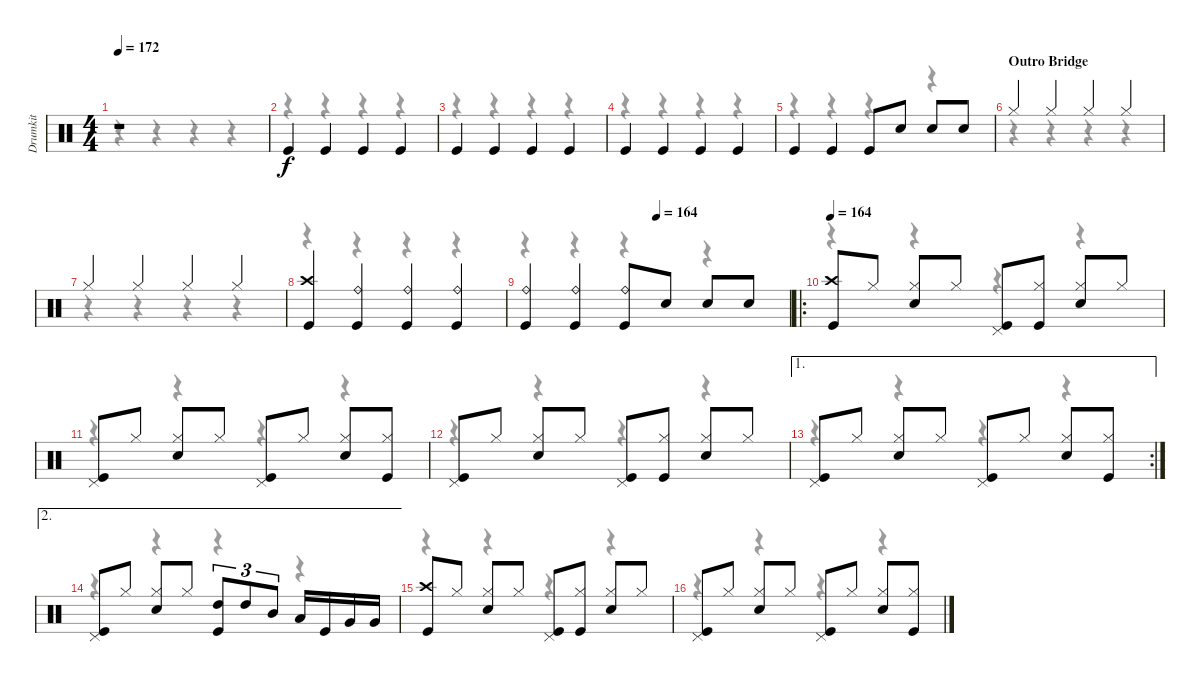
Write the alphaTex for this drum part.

\track ("Drumkit" "Drumkit") {instrument percussion}
\staff {score}
\articulation defaults
\voice
\ts (4 4)
\tempo 172
\clef neutral
\ks c
r.1{dy f} |
"Kick (hit)".4 "Kick (hit)".4 "Kick (hit)".4 "Kick (hit)".4 |
"Kick (hit)".4 "Kick (hit)".4 "Kick (hit)".4 "Kick (hit)".4 |
"Kick (hit)".4 "Kick (hit)".4 "Kick (hit)".4 "Kick (hit)".4 |
"Kick (hit)".4 "Kick (hit)".4 "Kick (hit)".8 "Snare (hit) 2".8 "Snare (hit) 2".8 "Snare (hit) 2".8 |
\section ("" "Outro Bridge")
"Hi-Hat (closed)".4 "Hi-Hat (closed)".4 "Hi-Hat (closed)".4 "Hi-Hat (closed)".4 |
"Hi-Hat (closed)".4 "Hi-Hat (closed)".4 "Hi-Hat (closed)".4 "Hi-Hat (closed)".4 |
("Crash high (hit)" "Kick (hit)").4 ("Ride (bell)" "Kick (hit)").4 ("Ride (bell)" "Kick (hit)").4 ("Ride (bell)" "Kick (hit)").4 |
\tempo (164 0.5)
("Ride (bell)" "Kick (hit)").4 ("Ride (bell)" "Kick (hit)").4 ("Ride (bell)" "Kick (hit)").8 "Snare (hit) 2".8 "Snare (hit) 2".8 "Snare (hit) 2".8 |
\ro
\tempo 164
("Crash high (hit)" "Kick (hit)").8 "Hi-Hat (closed)".8 ("Hi-Hat (closed)" "Snare (hit) 2").8 "Hi-Hat (closed)".8 ("Pedal Hi-Hat (hit)" "Kick (hit)").8 ("Hi-Hat (closed)" "Kick (hit)").8 ("Hi-Hat (closed)" "Snare (hit) 2").8 "Hi-Hat (closed)".8 |
("Pedal Hi-Hat (hit)" "Kick (hit)").8 "Hi-Hat (closed)".8 ("Hi-Hat (closed)" "Snare (hit) 2").8 "Hi-Hat (closed)".8 ("Pedal Hi-Hat (hit)" "Kick (hit)").8 "Hi-Hat (closed)".8 ("Hi-Hat (closed)" "Snare (hit) 2").8 ("Hi-Hat (closed)" "Kick (hit)").8 |
("Pedal Hi-Hat (hit)" "Kick (hit)").8 "Hi-Hat (closed)".8 ("Hi-Hat (closed)" "Snare (hit) 2").8 "Hi-Hat (closed)".8 ("Pedal Hi-Hat (hit)" "Kick (hit)").8 ("Hi-Hat (closed)" "Kick (hit)").8 ("Hi-Hat (closed)" "Snare (hit) 2").8 "Hi-Hat (closed)".8 |
\ae 1
\rc 2
("Pedal Hi-Hat (hit)" "Kick (hit)").8 "Hi-Hat (closed)".8 ("Hi-Hat (closed)" "Snare (hit) 2").8 "Hi-Hat (closed)".8 ("Pedal Hi-Hat (hit)" "Kick (hit)").8 "Hi-Hat (closed)".8 ("Hi-Hat (closed)" "Snare (hit) 2").8 ("Hi-Hat (closed)" "Kick (hit)").8 |
\ae 2
("Pedal Hi-Hat (hit)" "Kick (hit)").8 "Hi-Hat (closed)".8 ("Hi-Hat (closed)" "Snare (hit) 2").8 "Hi-Hat (closed)".8 ("High Tom (hit)" "Kick (hit)").8{tu (3 2)} "High Tom (hit)".8{tu (3 2)} "Mid Tom (hit)".8{tu (3 2)} "Low Tom (hit)".16 "Kick (hit)".16 "Very Low Tom (hit)".16 "Very Low Tom (hit)".16 |
("Crash high (hit)" "Kick (hit)").8 "Hi-Hat (closed)".8 ("Hi-Hat (closed)" "Snare (hit) 2").8 "Hi-Hat (closed)".8 ("Pedal Hi-Hat (hit)" "Kick (hit)").8 ("Hi-Hat (closed)" "Kick (hit)").8 ("Hi-Hat (closed)" "Snare (hit) 2").8 "Hi-Hat (closed)".8 |
("Pedal Hi-Hat (hit)" "Kick (hit)").8 "Hi-Hat (closed)".8 ("Hi-Hat (closed)" "Snare (hit) 2").8 "Hi-Hat (closed)".8 ("Pedal Hi-Hat (hit)" "Kick (hit)").8 "Hi-Hat (closed)".8 ("Hi-Hat (closed)" "Snare (hit) 2").8 ("Hi-Hat (closed)" "Kick (hit)").8
\voice
\clef neutral
\ottava regular
\simile none
\ks c
r.4{dy f} r.4 r.4 r.4 |
r.4 r.4 r.4 r.4 |
r.4 r.4 r.4 r.4 |
r.4 r.4 r.4 r.4 |
r.4 r.4 r.4 r.4 |
r.4 r.4 r.4 r.4 |
r.4 r.4 r.4 r.4 |
r.4 r.4 r.4 r.4 |
r.4 r.4 r.4 r.4 |
r.4 r.4 r.4 r.4 |
r.4 r.4 r.4 r.4 |
r.4 r.4 r.4 r.4 |
r.4 r.4 r.4 r.4 |
r.4 r.4 r.4 r.4 |
r.4 r.4 r.4 r.4 |
r.4 r.4 r.4 r.4
